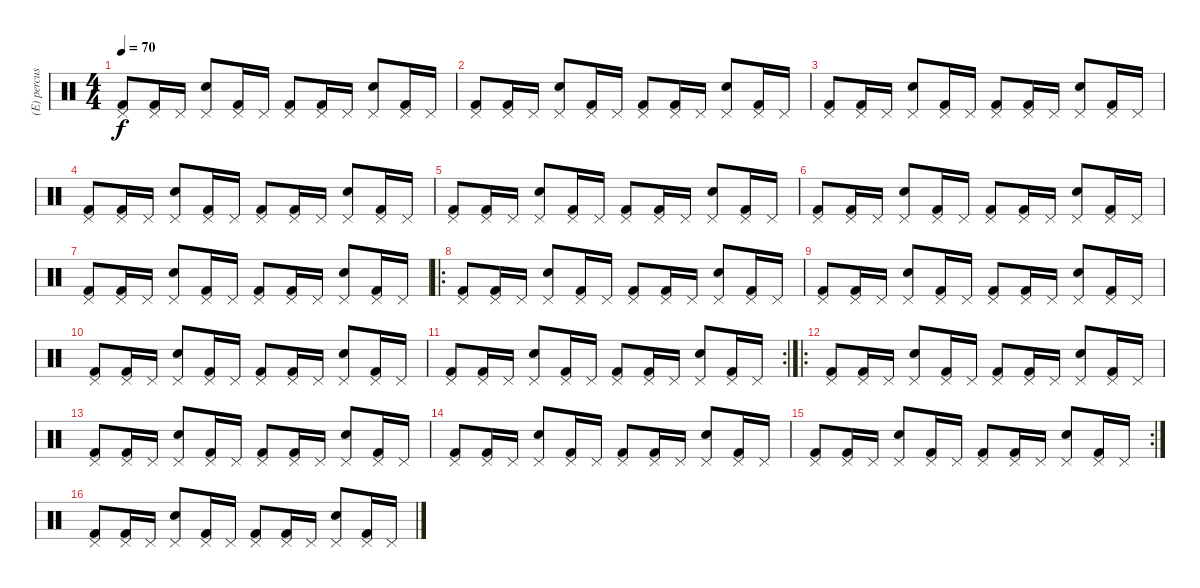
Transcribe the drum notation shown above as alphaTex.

\track ("(E) percussion" "(E) percus") {instrument percussion}
\staff {score}
\articulation defaults
\ts (4 4)
\tempo 70
\clef neutral
\ks c
("Pedal Hi-Hat (hit)" "Kick (hit) 2").8{dy f} ("Pedal Hi-Hat (hit)" "Kick (hit) 2").16 "Pedal Hi-Hat (hit)".16 ("Pedal Hi-Hat (hit)" "Snare (hit) 2").8 ("Pedal Hi-Hat (hit)" "Kick (hit) 2").16 "Pedal Hi-Hat (hit)".16 ("Pedal Hi-Hat (hit)" "Kick (hit) 2").8 ("Pedal Hi-Hat (hit)" "Kick (hit) 2").16 "Pedal Hi-Hat (hit)".16 ("Pedal Hi-Hat (hit)" "Snare (hit) 2").8 ("Pedal Hi-Hat (hit)" "Kick (hit) 2").16 "Pedal Hi-Hat (hit)".16 |
("Pedal Hi-Hat (hit)" "Kick (hit) 2").8 ("Pedal Hi-Hat (hit)" "Kick (hit) 2").16 "Pedal Hi-Hat (hit)".16 ("Pedal Hi-Hat (hit)" "Snare (hit) 2").8 ("Pedal Hi-Hat (hit)" "Kick (hit) 2").16 "Pedal Hi-Hat (hit)".16 ("Pedal Hi-Hat (hit)" "Kick (hit) 2").8 ("Pedal Hi-Hat (hit)" "Kick (hit) 2").16 "Pedal Hi-Hat (hit)".16 ("Pedal Hi-Hat (hit)" "Snare (hit) 2").8 ("Pedal Hi-Hat (hit)" "Kick (hit) 2").16 "Pedal Hi-Hat (hit)".16 |
("Pedal Hi-Hat (hit)" "Kick (hit) 2").8 ("Pedal Hi-Hat (hit)" "Kick (hit) 2").16 "Pedal Hi-Hat (hit)".16 ("Pedal Hi-Hat (hit)" "Snare (hit) 2").8 ("Pedal Hi-Hat (hit)" "Kick (hit) 2").16 "Pedal Hi-Hat (hit)".16 ("Pedal Hi-Hat (hit)" "Kick (hit) 2").8 ("Pedal Hi-Hat (hit)" "Kick (hit) 2").16 "Pedal Hi-Hat (hit)".16 ("Pedal Hi-Hat (hit)" "Snare (hit) 2").8 ("Pedal Hi-Hat (hit)" "Kick (hit) 2").16 "Pedal Hi-Hat (hit)".16 |
("Pedal Hi-Hat (hit)" "Kick (hit) 2").8 ("Pedal Hi-Hat (hit)" "Kick (hit) 2").16 "Pedal Hi-Hat (hit)".16 ("Pedal Hi-Hat (hit)" "Snare (hit) 2").8 ("Pedal Hi-Hat (hit)" "Kick (hit) 2").16 "Pedal Hi-Hat (hit)".16 ("Pedal Hi-Hat (hit)" "Kick (hit) 2").8 ("Pedal Hi-Hat (hit)" "Kick (hit) 2").16 "Pedal Hi-Hat (hit)".16 ("Pedal Hi-Hat (hit)" "Snare (hit) 2").8 ("Pedal Hi-Hat (hit)" "Kick (hit) 2").16 "Pedal Hi-Hat (hit)".16 |
("Pedal Hi-Hat (hit)" "Kick (hit) 2").8 ("Pedal Hi-Hat (hit)" "Kick (hit) 2").16 "Pedal Hi-Hat (hit)".16 ("Pedal Hi-Hat (hit)" "Snare (hit) 2").8 ("Pedal Hi-Hat (hit)" "Kick (hit) 2").16 "Pedal Hi-Hat (hit)".16 ("Pedal Hi-Hat (hit)" "Kick (hit) 2").8 ("Pedal Hi-Hat (hit)" "Kick (hit) 2").16 "Pedal Hi-Hat (hit)".16 ("Pedal Hi-Hat (hit)" "Snare (hit) 2").8 ("Pedal Hi-Hat (hit)" "Kick (hit) 2").16 "Pedal Hi-Hat (hit)".16 |
("Pedal Hi-Hat (hit)" "Kick (hit) 2").8 ("Pedal Hi-Hat (hit)" "Kick (hit) 2").16 "Pedal Hi-Hat (hit)".16 ("Pedal Hi-Hat (hit)" "Snare (hit) 2").8 ("Pedal Hi-Hat (hit)" "Kick (hit) 2").16 "Pedal Hi-Hat (hit)".16 ("Pedal Hi-Hat (hit)" "Kick (hit) 2").8 ("Pedal Hi-Hat (hit)" "Kick (hit) 2").16 "Pedal Hi-Hat (hit)".16 ("Pedal Hi-Hat (hit)" "Snare (hit) 2").8 ("Pedal Hi-Hat (hit)" "Kick (hit) 2").16 "Pedal Hi-Hat (hit)".16 |
("Pedal Hi-Hat (hit)" "Kick (hit) 2").8 ("Pedal Hi-Hat (hit)" "Kick (hit) 2").16 "Pedal Hi-Hat (hit)".16 ("Pedal Hi-Hat (hit)" "Snare (hit) 2").8 ("Pedal Hi-Hat (hit)" "Kick (hit) 2").16 "Pedal Hi-Hat (hit)".16 ("Pedal Hi-Hat (hit)" "Kick (hit) 2").8 ("Pedal Hi-Hat (hit)" "Kick (hit) 2").16 "Pedal Hi-Hat (hit)".16 ("Pedal Hi-Hat (hit)" "Snare (hit) 2").8 ("Pedal Hi-Hat (hit)" "Kick (hit) 2").16 "Pedal Hi-Hat (hit)".16 |
\ro
("Pedal Hi-Hat (hit)" "Kick (hit) 2").8 ("Pedal Hi-Hat (hit)" "Kick (hit) 2").16 "Pedal Hi-Hat (hit)".16 ("Pedal Hi-Hat (hit)" "Snare (hit) 2").8 ("Pedal Hi-Hat (hit)" "Kick (hit) 2").16 "Pedal Hi-Hat (hit)".16 ("Pedal Hi-Hat (hit)" "Kick (hit) 2").8 ("Pedal Hi-Hat (hit)" "Kick (hit) 2").16 "Pedal Hi-Hat (hit)".16 ("Pedal Hi-Hat (hit)" "Snare (hit) 2").8 ("Pedal Hi-Hat (hit)" "Kick (hit) 2").16 "Pedal Hi-Hat (hit)".16 |
("Pedal Hi-Hat (hit)" "Kick (hit) 2").8 ("Pedal Hi-Hat (hit)" "Kick (hit) 2").16 "Pedal Hi-Hat (hit)".16 ("Pedal Hi-Hat (hit)" "Snare (hit) 2").8 ("Pedal Hi-Hat (hit)" "Kick (hit) 2").16 "Pedal Hi-Hat (hit)".16 ("Pedal Hi-Hat (hit)" "Kick (hit) 2").8 ("Pedal Hi-Hat (hit)" "Kick (hit) 2").16 "Pedal Hi-Hat (hit)".16 ("Pedal Hi-Hat (hit)" "Snare (hit) 2").8 ("Pedal Hi-Hat (hit)" "Kick (hit) 2").16 "Pedal Hi-Hat (hit)".16 |
("Pedal Hi-Hat (hit)" "Kick (hit) 2").8 ("Pedal Hi-Hat (hit)" "Kick (hit) 2").16 "Pedal Hi-Hat (hit)".16 ("Pedal Hi-Hat (hit)" "Snare (hit) 2").8 ("Pedal Hi-Hat (hit)" "Kick (hit) 2").16 "Pedal Hi-Hat (hit)".16 ("Pedal Hi-Hat (hit)" "Kick (hit) 2").8 ("Pedal Hi-Hat (hit)" "Kick (hit) 2").16 "Pedal Hi-Hat (hit)".16 ("Pedal Hi-Hat (hit)" "Snare (hit) 2").8 ("Pedal Hi-Hat (hit)" "Kick (hit) 2").16 "Pedal Hi-Hat (hit)".16 |
\rc 2
("Pedal Hi-Hat (hit)" "Kick (hit) 2").8 ("Pedal Hi-Hat (hit)" "Kick (hit) 2").16 "Pedal Hi-Hat (hit)".16 ("Pedal Hi-Hat (hit)" "Snare (hit) 2").8 ("Pedal Hi-Hat (hit)" "Kick (hit) 2").16 "Pedal Hi-Hat (hit)".16 ("Pedal Hi-Hat (hit)" "Kick (hit) 2").8 ("Pedal Hi-Hat (hit)" "Kick (hit) 2").16 "Pedal Hi-Hat (hit)".16 ("Pedal Hi-Hat (hit)" "Snare (hit) 2").8 ("Pedal Hi-Hat (hit)" "Kick (hit) 2").16 "Pedal Hi-Hat (hit)".16 |
\ro
("Pedal Hi-Hat (hit)" "Kick (hit) 2").8 ("Pedal Hi-Hat (hit)" "Kick (hit) 2").16 "Pedal Hi-Hat (hit)".16 ("Pedal Hi-Hat (hit)" "Snare (hit) 2").8 ("Pedal Hi-Hat (hit)" "Kick (hit) 2").16 "Pedal Hi-Hat (hit)".16 ("Pedal Hi-Hat (hit)" "Kick (hit) 2").8 ("Pedal Hi-Hat (hit)" "Kick (hit) 2").16 "Pedal Hi-Hat (hit)".16 ("Pedal Hi-Hat (hit)" "Snare (hit) 2").8 ("Pedal Hi-Hat (hit)" "Kick (hit) 2").16 "Pedal Hi-Hat (hit)".16 |
("Pedal Hi-Hat (hit)" "Kick (hit) 2").8 ("Pedal Hi-Hat (hit)" "Kick (hit) 2").16 "Pedal Hi-Hat (hit)".16 ("Pedal Hi-Hat (hit)" "Snare (hit) 2").8 ("Pedal Hi-Hat (hit)" "Kick (hit) 2").16 "Pedal Hi-Hat (hit)".16 ("Pedal Hi-Hat (hit)" "Kick (hit) 2").8 ("Pedal Hi-Hat (hit)" "Kick (hit) 2").16 "Pedal Hi-Hat (hit)".16 ("Pedal Hi-Hat (hit)" "Snare (hit) 2").8 ("Pedal Hi-Hat (hit)" "Kick (hit) 2").16 "Pedal Hi-Hat (hit)".16 |
("Pedal Hi-Hat (hit)" "Kick (hit) 2").8 ("Pedal Hi-Hat (hit)" "Kick (hit) 2").16 "Pedal Hi-Hat (hit)".16 ("Pedal Hi-Hat (hit)" "Snare (hit) 2").8 ("Pedal Hi-Hat (hit)" "Kick (hit) 2").16 "Pedal Hi-Hat (hit)".16 ("Pedal Hi-Hat (hit)" "Kick (hit) 2").8 ("Pedal Hi-Hat (hit)" "Kick (hit) 2").16 "Pedal Hi-Hat (hit)".16 ("Pedal Hi-Hat (hit)" "Snare (hit) 2").8 ("Pedal Hi-Hat (hit)" "Kick (hit) 2").16 "Pedal Hi-Hat (hit)".16 |
\rc 2
("Pedal Hi-Hat (hit)" "Kick (hit) 2").8 ("Pedal Hi-Hat (hit)" "Kick (hit) 2").16 "Pedal Hi-Hat (hit)".16 ("Pedal Hi-Hat (hit)" "Snare (hit) 2").8 ("Pedal Hi-Hat (hit)" "Kick (hit) 2").16 "Pedal Hi-Hat (hit)".16 ("Pedal Hi-Hat (hit)" "Kick (hit) 2").8 ("Pedal Hi-Hat (hit)" "Kick (hit) 2").16 "Pedal Hi-Hat (hit)".16 ("Pedal Hi-Hat (hit)" "Snare (hit) 2").8 ("Pedal Hi-Hat (hit)" "Kick (hit) 2").16 "Pedal Hi-Hat (hit)".16 |
("Pedal Hi-Hat (hit)" "Kick (hit) 2").8 ("Pedal Hi-Hat (hit)" "Kick (hit) 2").16 "Pedal Hi-Hat (hit)".16 ("Pedal Hi-Hat (hit)" "Snare (hit) 2").8 ("Pedal Hi-Hat (hit)" "Kick (hit) 2").16 "Pedal Hi-Hat (hit)".16 ("Pedal Hi-Hat (hit)" "Kick (hit) 2").8 ("Pedal Hi-Hat (hit)" "Kick (hit) 2").16 "Pedal Hi-Hat (hit)".16 ("Pedal Hi-Hat (hit)" "Snare (hit) 2").8 ("Pedal Hi-Hat (hit)" "Kick (hit) 2").16 "Pedal Hi-Hat (hit)".16
